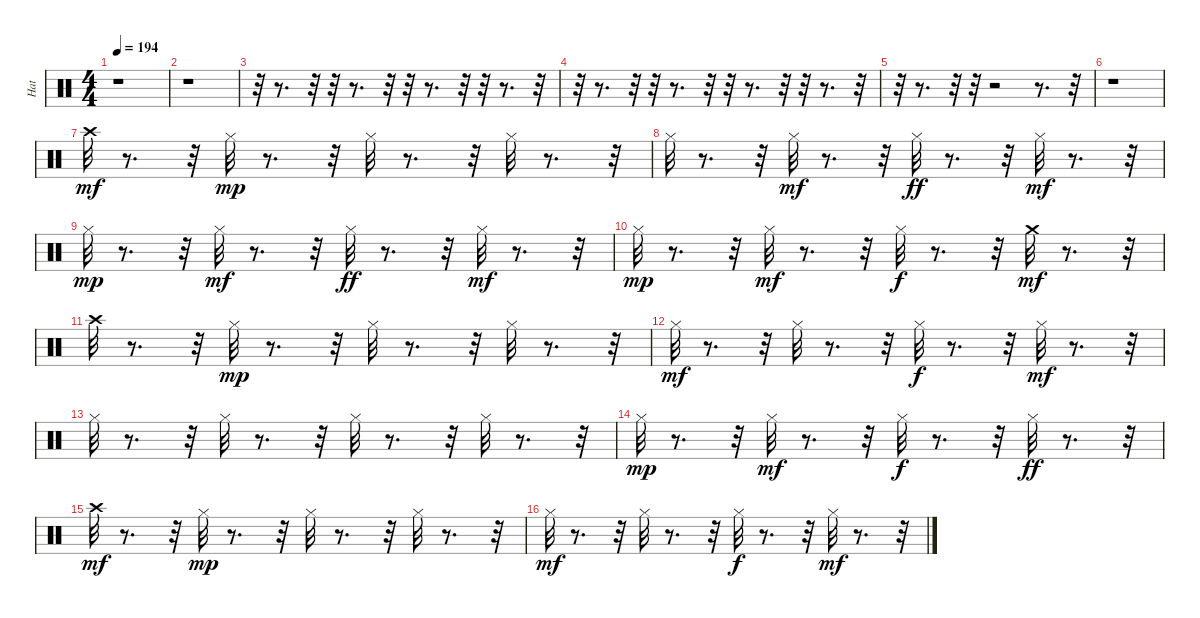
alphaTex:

\track ("Hat" "Hat") {instrument percussion}
\staff {score}
\articulation defaults
\ts (4 4)
\tempo 194
\clef neutral
\ks c
r.1{dy mf} |
r.1 |
r.32 r.8{d} r.32 r.32 r.8{d} r.32 r.32 r.8{d} r.32 r.32 r.8{d} r.32 |
r.32 r.8{d} r.32 r.32 r.8{d} r.32 r.32 r.8{d} r.32 r.32 r.8{d} r.32 |
r.32 r.8{d} r.32 r.32 r.2 r.8{d} r.32 |
r.1 |
"Crash high (hit)".32 r.8{d} r.32 "Hi-Hat (closed)".32{dy mp} r.8{d} r.32 "Hi-Hat (closed)".32 r.8{d} r.32 "Hi-Hat (closed)".32 r.8{d} r.32 |
"Hi-Hat (closed)".32 r.8{d} r.32 "Hi-Hat (closed)".32{dy mf} r.8{d} r.32 "Hi-Hat (closed)".32{dy ff} r.8{d} r.32 "Hi-Hat (closed)".32{dy mf} r.8{d} r.32 |
"Hi-Hat (closed)".32{dy mp} r.8{d} r.32 "Hi-Hat (closed)".32{dy mf} r.8{d} r.32 "Hi-Hat (closed)".32{dy ff} r.8{d} r.32 "Hi-Hat (closed)".32{dy mf} r.8{d} r.32 |
"Hi-Hat (closed)".32{dy mp} r.8{d} r.32 "Hi-Hat (closed)".32{dy mf} r.8{d} r.32 "Hi-Hat (closed)".32{dy f} r.8{d} r.32 "Crash medium (hit)".32{dy mf} r.8{d} r.32 |
"Crash high (hit)".32 r.8{d} r.32 "Hi-Hat (closed)".32{dy mp} r.8{d} r.32 "Hi-Hat (closed)".32 r.8{d} r.32 "Hi-Hat (closed)".32 r.8{d} r.32 |
"Hi-Hat (closed)".32{dy mf} r.8{d} r.32 "Hi-Hat (closed)".32 r.8{d} r.32 "Hi-Hat (closed)".32{dy f} r.8{d} r.32 "Hi-Hat (closed)".32{dy mf} r.8{d} r.32 |
"Hi-Hat (closed)".32 r.8{d} r.32 "Hi-Hat (closed)".32 r.8{d} r.32 "Hi-Hat (closed)".32 r.8{d} r.32 "Hi-Hat (closed)".32 r.8{d} r.32 |
"Hi-Hat (closed)".32{dy mp} r.8{d} r.32 "Hi-Hat (closed)".32{dy mf} r.8{d} r.32 "Hi-Hat (closed)".32{dy f} r.8{d} r.32 "Hi-Hat (closed)".32{dy ff} r.8{d} r.32 |
"Crash high (hit)".32{dy mf} r.8{d} r.32 "Hi-Hat (closed)".32{dy mp} r.8{d} r.32 "Hi-Hat (closed)".32 r.8{d} r.32 "Hi-Hat (closed)".32 r.8{d} r.32 |
"Hi-Hat (closed)".32{dy mf} r.8{d} r.32 "Hi-Hat (closed)".32 r.8{d} r.32 "Hi-Hat (closed)".32{dy f} r.8{d} r.32 "Hi-Hat (closed)".32{dy mf} r.8{d} r.32
